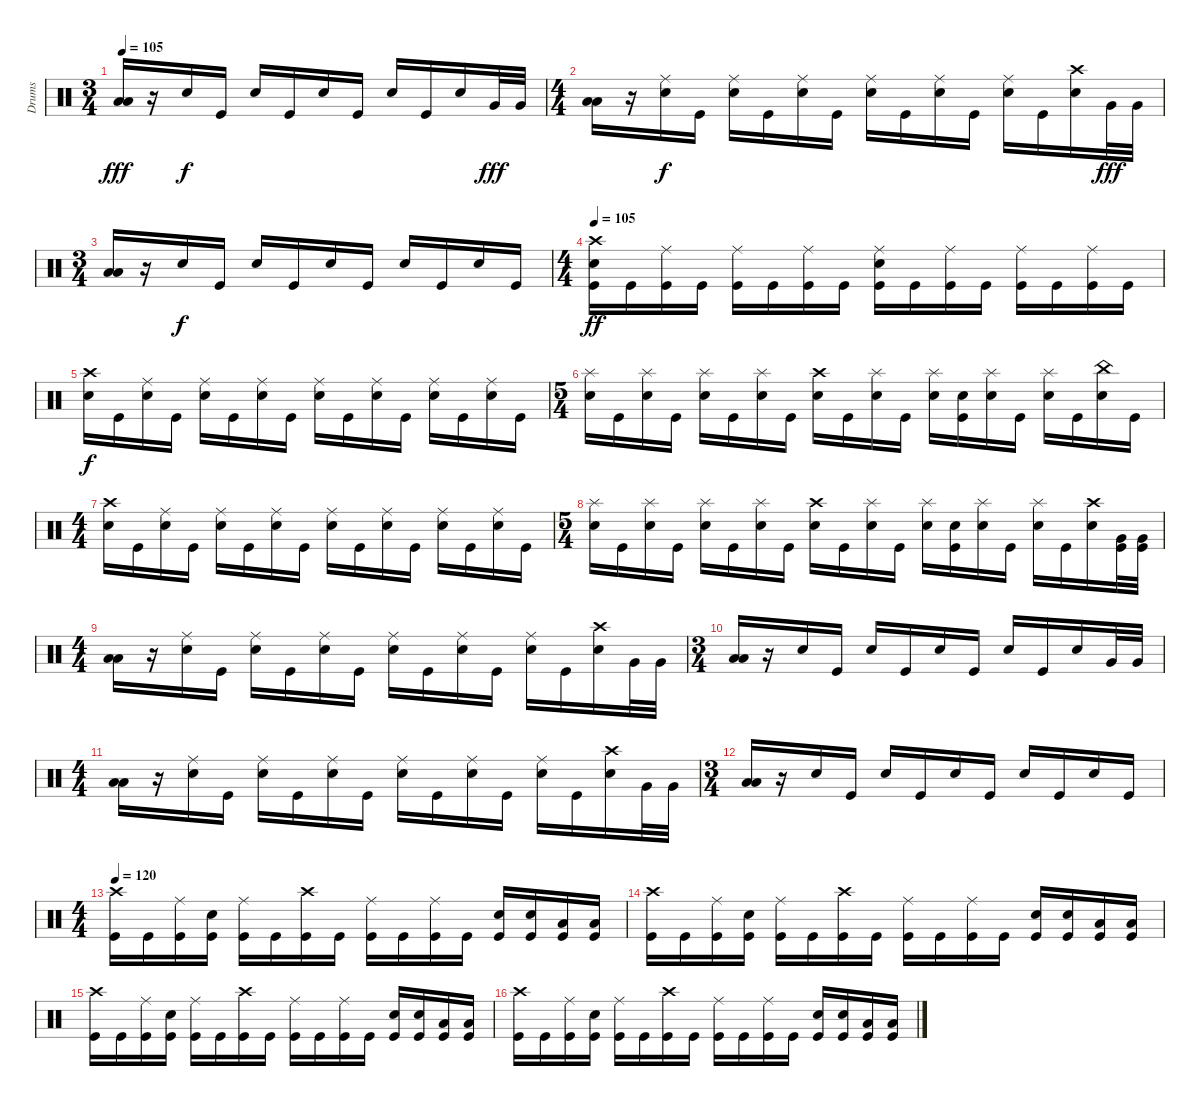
\track ("Drums" "Drums") {instrument percussion}
\staff {score}
\articulation defaults
\ts (3 4)
\tempo 105
\clef neutral
\ks c
("Low Floor Tom (hit)" "Low Floor Tom (hit)").16{dy fff} r.16 "Electric Snare (hit)".16{dy f} "Kick (hit)".16 "Electric Snare (hit)".16 "Kick (hit)".16 "Electric Snare (hit)".16 "Kick (hit)".16 "Electric Snare (hit)".16 "Kick (hit)".16 "Electric Snare (hit)".16 "Very Low Tom (hit)".32{dy fff} "Very Low Tom (hit)".32 |
\ts (4 4)
("Low Floor Tom (hit)" "Low Floor Tom (hit)").16 r.16 ("Ride (middle)" "Electric Snare (hit)").16{dy f} "Kick (hit)".16 ("Ride (middle)" "Electric Snare (hit)").16 "Kick (hit)".16 ("Ride (middle)" "Electric Snare (hit)").16 "Kick (hit)".16 ("Ride (middle)" "Electric Snare (hit)").16 "Kick (hit)".16 ("Ride (middle)" "Electric Snare (hit)").16 "Kick (hit)".16 ("Ride (middle)" "Electric Snare (hit)").16 "Kick (hit)".16 ("Crash high (hit)" "Electric Snare (hit)").16 "Very Low Tom (hit)".32{dy fff} "Very Low Tom (hit)".32 |
\ts (3 4)
("Low Floor Tom (hit)" "Low Floor Tom (hit)").16 r.16 "Electric Snare (hit)".16{dy f} "Kick (hit)".16 "Electric Snare (hit)".16 "Kick (hit)".16 "Electric Snare (hit)".16 "Kick (hit)".16 "Electric Snare (hit)".16 "Kick (hit)".16 "Electric Snare (hit)".16 "Kick (hit)".16 |
\ts (4 4)
\tempo 105
("Crash high (hit)" "Electric Snare (hit)" "Kick (hit)").16{dy ff} "Kick (hit)".16 ("Ride (middle)" "Kick (hit)").16 "Kick (hit)".16 ("Ride (middle)" "Kick (hit)").16 "Kick (hit)".16 ("Ride (middle)" "Kick (hit)").16 "Kick (hit)".16 ("Ride (middle)" "Electric Snare (hit)" "Kick (hit)").16 "Kick (hit)".16 ("Ride (middle)" "Kick (hit)").16 "Kick (hit)".16 ("Ride (middle)" "Kick (hit)").16 "Kick (hit)".16 ("Ride (middle)" "Kick (hit)").16 "Kick (hit)".16 |
("Crash high (hit)" "Electric Snare (hit)").16{dy f} "Kick (hit)".16 ("Ride (middle)" "Electric Snare (hit)").16 "Kick (hit)".16 ("Ride (middle)" "Electric Snare (hit)").16 "Kick (hit)".16 ("Ride (middle)" "Electric Snare (hit)").16 "Kick (hit)".16 ("Ride (middle)" "Electric Snare (hit)").16 "Kick (hit)".16 ("Ride (middle)" "Electric Snare (hit)").16 "Kick (hit)".16 ("Ride (middle)" "Electric Snare (hit)").16 "Kick (hit)".16 ("Ride (middle)" "Electric Snare (hit)").16 "Kick (hit)".16 |
\ts (5 4)
("Splash (hit)" "Electric Snare (hit)").16 "Kick (hit)".16 ("Splash (hit)" "Electric Snare (hit)").16 "Kick (hit)".16 ("Splash (hit)" "Electric Snare (hit)").16 "Kick (hit)".16 ("Splash (hit)" "Electric Snare (hit)").16 "Kick (hit)".16 ("Crash high (hit)" "Electric Snare (hit)").16 "Kick (hit)".16 ("Splash (hit)" "Electric Snare (hit)").16 "Kick (hit)".16 ("Splash (hit)" "Electric Snare (hit)").16 ("Snare (hit)" "Kick (hit)").16 ("Splash (hit)" "Electric Snare (hit)").16 "Kick (hit)".16 ("Splash (hit)" "Electric Snare (hit)").16 "Kick (hit)".16 ("China (hit)" "Electric Snare (hit)").16 "Kick (hit)".16 |
\ts (4 4)
("Crash high (hit)" "Electric Snare (hit)").16 "Kick (hit)".16 ("Ride (middle)" "Electric Snare (hit)").16 "Kick (hit)".16 ("Ride (middle)" "Electric Snare (hit)").16 "Kick (hit)".16 ("Ride (middle)" "Electric Snare (hit)").16 "Kick (hit)".16 ("Ride (middle)" "Electric Snare (hit)").16 "Kick (hit)".16 ("Ride (middle)" "Electric Snare (hit)").16 "Kick (hit)".16 ("Ride (middle)" "Electric Snare (hit)").16 "Kick (hit)".16 ("Ride (middle)" "Electric Snare (hit)").16 "Kick (hit)".16 |
\ts (5 4)
("Splash (hit)" "Electric Snare (hit)").16 "Kick (hit)".16 ("Splash (hit)" "Electric Snare (hit)").16 "Kick (hit)".16 ("Splash (hit)" "Electric Snare (hit)").16 "Kick (hit)".16 ("Splash (hit)" "Electric Snare (hit)").16 "Kick (hit)".16 ("Crash high (hit)" "Electric Snare (hit)").16 "Kick (hit)".16 ("Splash (hit)" "Electric Snare (hit)").16 "Kick (hit)".16 ("Splash (hit)" "Electric Snare (hit)").16 ("Snare (hit)" "Kick (hit)").16 ("Splash (hit)" "Electric Snare (hit)").16 "Kick (hit)".16 ("Splash (hit)" "Electric Snare (hit)").16 "Kick (hit)".16 ("Crash high (hit)" "Electric Snare (hit)").16 ("Very Low Tom (hit)" "Kick (hit)").32 ("Very Low Tom (hit)" "Kick (hit)").32 |
\ts (4 4)
("Low Floor Tom (hit)" "Low Floor Tom (hit)").16 r.16 ("Ride (middle)" "Electric Snare (hit)").16 "Kick (hit)".16 ("Ride (middle)" "Electric Snare (hit)").16 "Kick (hit)".16 ("Ride (middle)" "Electric Snare (hit)").16 "Kick (hit)".16 ("Ride (middle)" "Electric Snare (hit)").16 "Kick (hit)".16 ("Ride (middle)" "Electric Snare (hit)").16 "Kick (hit)".16 ("Ride (middle)" "Electric Snare (hit)").16 "Kick (hit)".16 ("Crash high (hit)" "Electric Snare (hit)").16 "Very Low Tom (hit)".32 "Very Low Tom (hit)".32 |
\ts (3 4)
("Low Floor Tom (hit)" "Low Floor Tom (hit)").16 r.16 "Electric Snare (hit)".16 "Kick (hit)".16 "Electric Snare (hit)".16 "Kick (hit)".16 "Electric Snare (hit)".16 "Kick (hit)".16 "Electric Snare (hit)".16 "Kick (hit)".16 "Electric Snare (hit)".16 "Very Low Tom (hit)".32 "Very Low Tom (hit)".32 |
\ts (4 4)
("Low Floor Tom (hit)" "Low Floor Tom (hit)").16 r.16 ("Ride (middle)" "Electric Snare (hit)").16 "Kick (hit)".16 ("Ride (middle)" "Electric Snare (hit)").16 "Kick (hit)".16 ("Ride (middle)" "Electric Snare (hit)").16 "Kick (hit)".16 ("Ride (middle)" "Electric Snare (hit)").16 "Kick (hit)".16 ("Ride (middle)" "Electric Snare (hit)").16 "Kick (hit)".16 ("Ride (middle)" "Electric Snare (hit)").16 "Kick (hit)".16 ("Crash high (hit)" "Electric Snare (hit)").16 "Very Low Tom (hit)".32 "Very Low Tom (hit)".32 |
\ts (3 4)
("Low Floor Tom (hit)" "Low Floor Tom (hit)").16 r.16 "Electric Snare (hit)".16 "Kick (hit)".16 "Electric Snare (hit)".16 "Kick (hit)".16 "Electric Snare (hit)".16 "Kick (hit)".16 "Electric Snare (hit)".16 "Kick (hit)".16 "Electric Snare (hit)".16 "Kick (hit)".16 |
\ts (4 4)
\tempo 120
("Crash high (hit)" "Kick (hit)").16 "Kick (hit)".16 ("Ride (middle)" "Kick (hit)").16 ("Electric Snare (hit)" "Kick (hit)").16 ("Ride (middle)" "Kick (hit)").16 "Kick (hit)".16 ("Crash high (hit)" "Kick (hit)").16 "Kick (hit)".16 ("Ride (middle)" "Kick (hit)").16 "Kick (hit)".16 ("Ride (middle)" "Kick (hit)").16 "Kick (hit)".16 ("Electric Snare (hit)" "Kick (hit)").16 ("Electric Snare (hit)" "Kick (hit)").16 ("Low Tom (hit)" "Kick (hit)").16 ("Low Tom (hit)" "Kick (hit)").16 |
("Crash high (hit)" "Kick (hit)").16 "Kick (hit)".16 ("Ride (middle)" "Kick (hit)").16 ("Electric Snare (hit)" "Kick (hit)").16 ("Ride (middle)" "Kick (hit)").16 "Kick (hit)".16 ("Crash high (hit)" "Kick (hit)").16 "Kick (hit)".16 ("Ride (middle)" "Kick (hit)").16 "Kick (hit)".16 ("Ride (middle)" "Kick (hit)").16 "Kick (hit)".16 ("Electric Snare (hit)" "Kick (hit)").16 ("Electric Snare (hit)" "Kick (hit)").16 ("Low Tom (hit)" "Kick (hit)").16 ("Low Tom (hit)" "Kick (hit)").16 |
("Crash high (hit)" "Kick (hit)").16 "Kick (hit)".16 ("Ride (middle)" "Kick (hit)").16 ("Electric Snare (hit)" "Kick (hit)").16 ("Ride (middle)" "Kick (hit)").16 "Kick (hit)".16 ("Crash high (hit)" "Kick (hit)").16 "Kick (hit)".16 ("Ride (middle)" "Kick (hit)").16 "Kick (hit)".16 ("Ride (middle)" "Kick (hit)").16 "Kick (hit)".16 ("Electric Snare (hit)" "Kick (hit)").16 ("Electric Snare (hit)" "Kick (hit)").16 ("Low Tom (hit)" "Kick (hit)").16 ("Low Tom (hit)" "Kick (hit)").16 |
("Crash high (hit)" "Kick (hit)").16 "Kick (hit)".16 ("Ride (middle)" "Kick (hit)").16 ("Electric Snare (hit)" "Kick (hit)").16 ("Ride (middle)" "Kick (hit)").16 "Kick (hit)".16 ("Crash high (hit)" "Kick (hit)").16 "Kick (hit)".16 ("Ride (middle)" "Kick (hit)").16 "Kick (hit)".16 ("Ride (middle)" "Kick (hit)").16 "Kick (hit)".16 ("Electric Snare (hit)" "Kick (hit)").16 ("Electric Snare (hit)" "Kick (hit)").16 ("Low Tom (hit)" "Kick (hit)").16 ("Low Tom (hit)" "Kick (hit)").16
